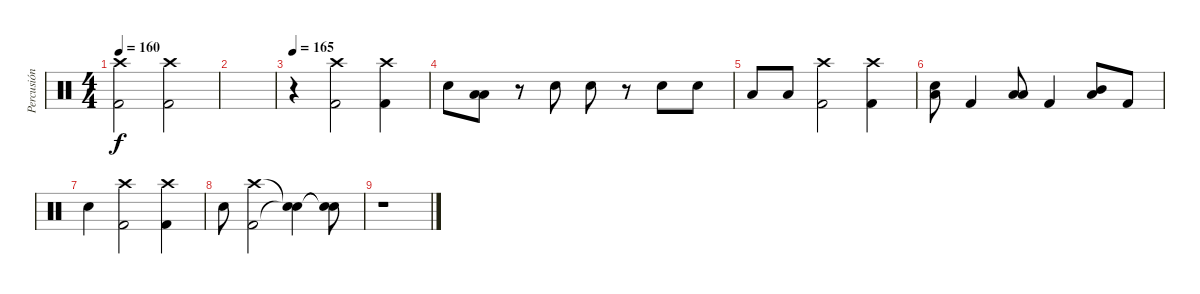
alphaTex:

\track ("Percusión" "Percusión") {instrument percussion}
\staff {score}
\articulation defaults
\ts (4 4)
\tempo 160
\clef neutral
\ks c
("Kick (hit) 2" "Crash high (hit)").2{dy f} ("Kick (hit) 2" "Crash high (hit)").2 |
|
\tempo 165
r.4 ("Kick (hit) 2" "Crash high (hit)").2 ("Kick (hit) 2" "Crash high (hit)").4 |
"Snare (hit) 2".8 ("Low Tom (hit)" "Low Floor Tom (hit)").8 r.8 "Snare (hit) 2".8 "Snare (hit) 2".8 r.8 "Snare (hit) 2".8 "Snare (hit) 2".8 |
"Low Tom (hit)".8 "Low Tom (hit)".8 ("Kick (hit) 2" "Crash high (hit)").2 ("Kick (hit) 2" "Crash high (hit)").4 |
("Snare (hit) 2" "Low Floor Tom (hit)").8 "Kick (hit) 2".4 ("Low Tom (hit)" "Low Floor Tom (hit)").8 "Kick (hit) 2".4 ("Mid Tom (hit)" "Low Floor Tom (hit)").8 "Kick (hit) 2".8 |
"Snare (hit) 2".4 ("Kick (hit) 2" "Crash high (hit)").2 ("Kick (hit) 2" "Crash high (hit)").4 |
"Snare (hit) 2".8 ("Kick (hit) 2" "Crash high (hit)").2 ("Snare (hit)"{t} "Snare (hit)"{t}).4 ("Snare (hit)"{t} "Snare (hit)"{t}).8 |
r.1
